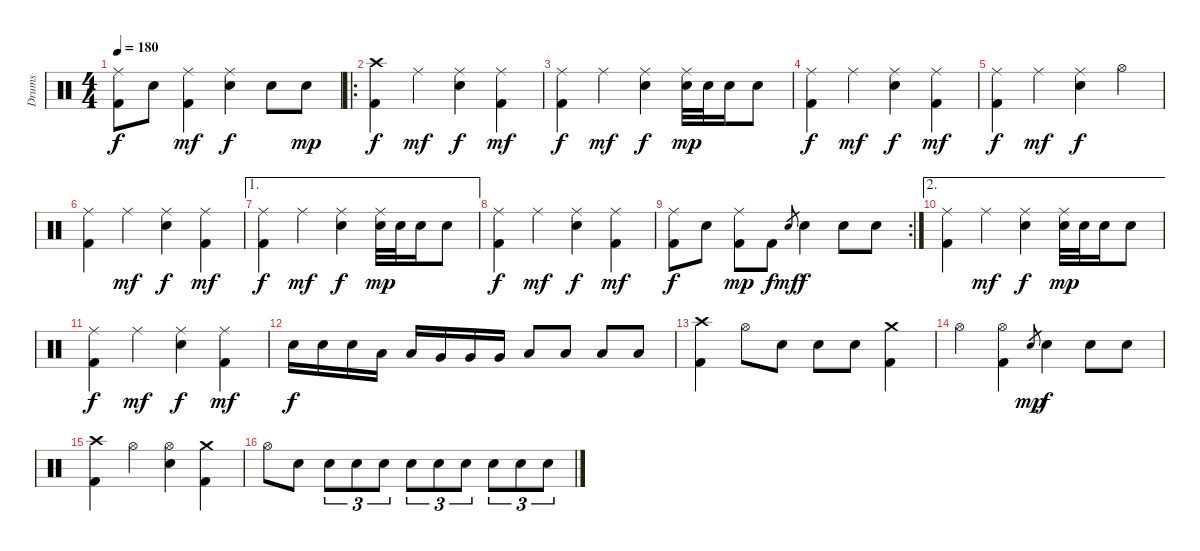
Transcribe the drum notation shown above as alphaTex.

\track ("Drums" "Drums") {instrument percussion}
\staff {score}
\articulation defaults
\ts (4 4)
\tempo 180
\clef neutral
\ks c
("Ride (middle)" "Kick (hit) 2").8{dy f} "Snare (hit) 2".8 ("Ride (middle)" "Kick (hit) 2").4{dy mf} ("Ride (middle)" "Snare (hit) 2").4{dy f} "Snare (hit) 2".8 "Snare (hit) 2".8{dy mp} |
\ro
("Crash high (hit)" "Kick (hit) 2").4{dy f} "Ride (middle)".4{dy mf} ("Ride (middle)" "Snare (hit) 2").4{dy f} ("Ride (middle)" "Kick (hit) 2").4{dy mf} |
("Ride (middle)" "Kick (hit) 2").4{dy f} "Ride (middle)".4{dy mf} ("Ride (middle)" "Snare (hit) 2").4{dy f} ("Ride (middle)" "Snare (hit) 2").32{dy mp} "Snare (hit) 2".32 "Snare (hit) 2".16 "Snare (hit) 2".8 |
("Ride (middle)" "Kick (hit) 2").4{dy f} "Ride (middle)".4{dy mf} ("Ride (middle)" "Snare (hit) 2").4{dy f} ("Ride (middle)" "Kick (hit) 2").4{dy mf} |
("Ride (middle)" "Kick (hit) 2").4{dy f} "Ride (middle)".4{dy mf} ("Ride (middle)" "Snare (hit) 2").4{dy f} "Hi-Hat (open)".4 |
("Ride (middle)" "Kick (hit) 2").4 "Ride (middle)".4{dy mf} ("Ride (middle)" "Snare (hit) 2").4{dy f} ("Ride (middle)" "Kick (hit) 2").4{dy mf} |
\ae 1
("Ride (middle)" "Kick (hit) 2").4{dy f} "Ride (middle)".4{dy mf} ("Ride (middle)" "Snare (hit) 2").4{dy f} ("Ride (middle)" "Snare (hit) 2").32{dy mp} "Snare (hit) 2".32 "Snare (hit) 2".16 "Snare (hit) 2".8 |
("Ride (middle)" "Kick (hit) 2").4{dy f} "Ride (middle)".4{dy mf} ("Ride (middle)" "Snare (hit) 2").4{dy f} ("Ride (middle)" "Kick (hit) 2").4{dy mf} |
\rc 2
("Ride (middle)" "Kick (hit) 2").8{dy f} "Snare (hit) 2".8 ("Ride (middle)" "Kick (hit) 2").8{dy mp} "Kick (hit) 2".8{dy f} "Snare (hit) 2".8{gr dy mf} "Snare (hit) 2".4{dy f} "Snare (hit) 2".8 "Snare (hit) 2".8 |
\ae 2
("Ride (middle)" "Kick (hit) 2").4 "Ride (middle)".4{dy mf} ("Ride (middle)" "Snare (hit) 2").4{dy f} ("Ride (middle)" "Snare (hit) 2").32{dy mp} "Snare (hit) 2".32 "Snare (hit) 2".16 "Snare (hit) 2".8 |
("Ride (middle)" "Kick (hit) 2").4{dy f} "Ride (middle)".4{dy mf} ("Ride (middle)" "Snare (hit) 2").4{dy f} ("Ride (middle)" "Kick (hit) 2").4{dy mf} |
"Snare (hit) 2".16{dy f} "Snare (hit) 2".16 "Snare (hit) 2".16 "Low Tom (hit)".16 "Low Tom (hit)".16 "Very Low Tom (hit)".16 "Very Low Tom (hit)".16 "Very Low Tom (hit)".16 "Low Tom (hit)".8 "Low Tom (hit)".8 "Low Tom (hit)".8 "Low Tom (hit)".8 |
("Crash high (hit)" "Kick (hit) 2").4 "Hi-Hat (open)".8 "Snare (hit) 2".8 "Snare (hit) 2".8 "Snare (hit) 2".8 ("Crash medium (hit)" "Kick (hit) 2").4 |
"Hi-Hat (open)".4 ("Hi-Hat (open)" "Kick (hit) 2").4 "Snare (hit) 2".8{gr dy mp} "Snare (hit) 2".4{dy f} "Snare (hit) 2".8 "Snare (hit) 2".8 |
("Crash high (hit)" "Kick (hit) 2").4 "Hi-Hat (open)".4 ("Hi-Hat (open)" "Snare (hit) 2").4 ("Crash medium (hit)" "Kick (hit) 2").4 |
"Hi-Hat (open)".8 "Snare (hit) 2".8 "Snare (hit) 2".8{tu (3 2)} "Snare (hit) 2".8{tu (3 2)} "Snare (hit) 2".8{tu (3 2)} "Snare (hit) 2".8{tu (3 2)} "Snare (hit) 2".8{tu (3 2)} "Snare (hit) 2".8{tu (3 2)} "Snare (hit) 2".8{tu (3 2)} "Snare (hit) 2".8{tu (3 2)} "Snare (hit) 2".8{tu (3 2)}
